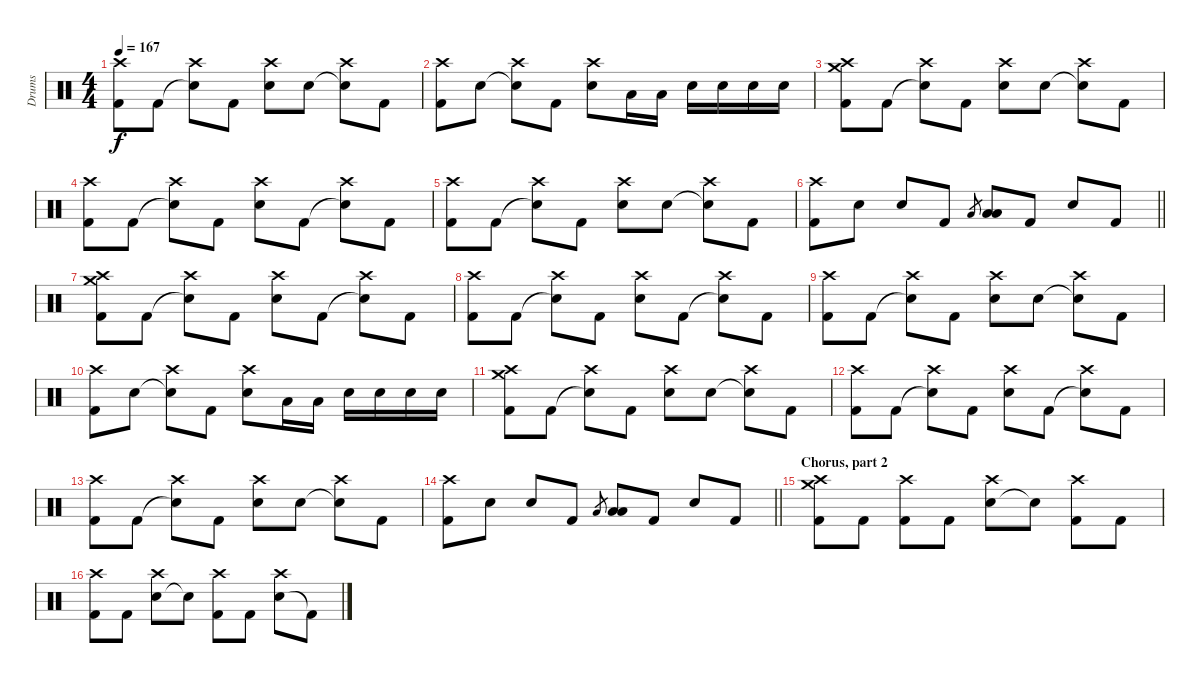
\track ("Drums" "Drums") {instrument percussion}
\staff {score}
\articulation defaults
\ts (4 4)
\tempo 167
\clef neutral
\ks c
("Kick (hit) 2" "Crash high (hit)").8{dy f} "Kick (hit) 2".8 ("Snare (hit)"{t} "Crash high (hit)").8 "Kick (hit) 2".8 ("Electric Snare (hit)" "Crash high (hit)").8 "Electric Snare (hit)".8 ("Snare (hit)"{t} "Crash high (hit)").8 "Kick (hit) 2".8 |
("Kick (hit) 2" "Crash high (hit)").8 "Electric Snare (hit)".8 ("Snare (hit)"{t} "Crash high (hit)").8 "Kick (hit) 2".8 ("Electric Snare (hit)" "Crash high (hit)").8 "Low Tom (hit)".16 "Low Tom (hit)".16 "Electric Snare (hit)".16 "Electric Snare (hit)".16 "Electric Snare (hit)".16 "Electric Snare (hit)".16 |
("Kick (hit) 2" "Crash medium (hit)" "Crash high (hit)").8 "Kick (hit) 2".8 ("Snare (hit)"{t} "Crash high (hit)").8 "Kick (hit) 2".8 ("Electric Snare (hit)" "Crash high (hit)").8 "Electric Snare (hit)".8 ("Snare (hit)"{t} "Crash high (hit)").8 "Kick (hit) 2".8 |
("Kick (hit) 2" "Crash high (hit)").8 "Kick (hit) 2".8 ("Snare (hit)"{t} "Crash high (hit)").8 "Kick (hit) 2".8 ("Electric Snare (hit)" "Crash high (hit)").8 "Kick (hit) 2".8 ("Snare (hit)"{t} "Crash high (hit)").8 "Kick (hit) 2".8 |
("Kick (hit) 2" "Crash high (hit)").8 "Kick (hit) 2".8 ("Snare (hit)"{t} "Crash high (hit)").8 "Kick (hit) 2".8 ("Electric Snare (hit)" "Crash high (hit)").8 "Electric Snare (hit)".8 ("Snare (hit)"{t} "Crash high (hit)").8 "Kick (hit) 2".8 |
\barLineRight lightlight
("Kick (hit) 2" "Crash high (hit)").8 "Electric Snare (hit)".8 "Electric Snare (hit)".8 "Kick (hit) 2".8 "Low Tom (hit)".8{gr} ("Low Tom (hit)" "Low Floor Tom (hit)").8 "Kick (hit) 2".8 "Electric Snare (hit)".8 "Kick (hit) 2".8 |
("Kick (hit) 2" "Crash medium (hit)" "Crash high (hit)").8 "Kick (hit) 2".8 ("Snare (hit)"{t} "Crash high (hit)").8 "Kick (hit) 2".8 ("Electric Snare (hit)" "Crash high (hit)").8 "Kick (hit) 2".8 ("Snare (hit)"{t} "Crash high (hit)").8 "Kick (hit) 2".8 |
("Kick (hit) 2" "Crash high (hit)").8 "Kick (hit) 2".8 ("Snare (hit)"{t} "Crash high (hit)").8 "Kick (hit) 2".8 ("Electric Snare (hit)" "Crash high (hit)").8 "Kick (hit) 2".8 ("Snare (hit)"{t} "Crash high (hit)").8 "Kick (hit) 2".8 |
("Kick (hit) 2" "Crash high (hit)").8 "Kick (hit) 2".8 ("Snare (hit)"{t} "Crash high (hit)").8 "Kick (hit) 2".8 ("Electric Snare (hit)" "Crash high (hit)").8 "Electric Snare (hit)".8 ("Snare (hit)"{t} "Crash high (hit)").8 "Kick (hit) 2".8 |
("Kick (hit) 2" "Crash high (hit)").8 "Electric Snare (hit)".8 ("Snare (hit)"{t} "Crash high (hit)").8 "Kick (hit) 2".8 ("Electric Snare (hit)" "Crash high (hit)").8 "Low Tom (hit)".16 "Low Tom (hit)".16 "Electric Snare (hit)".16 "Electric Snare (hit)".16 "Electric Snare (hit)".16 "Electric Snare (hit)".16 |
("Kick (hit) 2" "Crash medium (hit)" "Crash high (hit)").8 "Kick (hit) 2".8 ("Snare (hit)"{t} "Crash high (hit)").8 "Kick (hit) 2".8 ("Electric Snare (hit)" "Crash high (hit)").8 "Electric Snare (hit)".8 ("Snare (hit)"{t} "Crash high (hit)").8 "Kick (hit) 2".8 |
("Kick (hit) 2" "Crash high (hit)").8 "Kick (hit) 2".8 ("Snare (hit)"{t} "Crash high (hit)").8 "Kick (hit) 2".8 ("Electric Snare (hit)" "Crash high (hit)").8 "Kick (hit) 2".8 ("Snare (hit)"{t} "Crash high (hit)").8 "Kick (hit) 2".8 |
("Kick (hit) 2" "Crash high (hit)").8 "Kick (hit) 2".8 ("Snare (hit)"{t} "Crash high (hit)").8 "Kick (hit) 2".8 ("Electric Snare (hit)" "Crash high (hit)").8 "Electric Snare (hit)".8 ("Snare (hit)"{t} "Crash high (hit)").8 "Kick (hit) 2".8 |
\barLineRight lightlight
("Kick (hit) 2" "Crash high (hit)").8 "Electric Snare (hit)".8 "Electric Snare (hit)".8 "Kick (hit) 2".8 "Low Tom (hit)".8{gr} ("Low Tom (hit)" "Low Floor Tom (hit)").8 "Kick (hit) 2".8 "Electric Snare (hit)".8 "Kick (hit) 2".8 |
\section ("" "Chorus, part 2")
("Kick (hit) 2" "Crash medium (hit)" "Crash high (hit)").8 "Kick (hit) 2".8 ("Kick (hit) 2" "Crash high (hit)").8 "Kick (hit) 2".8 ("Electric Snare (hit)" "Crash high (hit)").8 "Snare (hit)"{t}.8 ("Kick (hit) 2" "Crash high (hit)").8 "Kick (hit) 2".8 |
("Kick (hit) 2" "Crash high (hit)").8 "Kick (hit) 2".8 ("Electric Snare (hit)" "Crash high (hit)").8 "Snare (hit)"{t}.8 ("Kick (hit) 2" "Crash high (hit)").8 "Kick (hit) 2".8 ("Electric Snare (hit)" "Crash high (hit)").8 "Kick (hit) 2"{t}.8
